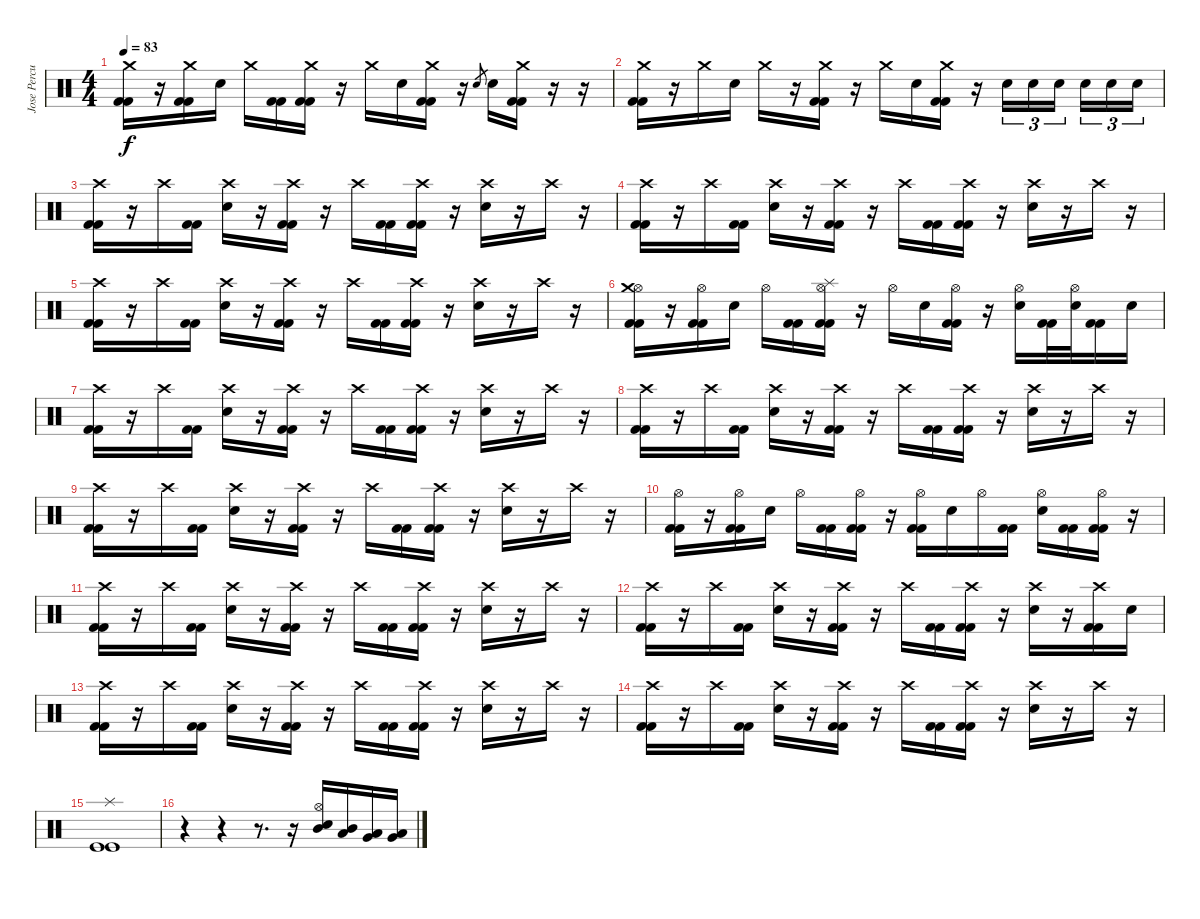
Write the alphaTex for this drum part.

\track ("Jose Percusilas" "Jose Percu") {instrument percussion}
\staff {score}
\articulation defaults
\ts (4 4)
\tempo 83
\clef neutral
\ks c
("Crash medium (hit)" "Kick (hit) 2" "Kick (hit) 2").16{dy f} r.16 ("Crash medium (hit)" "Kick (hit) 2" "Kick (hit) 2").16 "Electric Snare (hit)".16 "Crash medium (hit)".16 ("Kick (hit) 2" "Kick (hit) 2").16 ("Crash medium (hit)" "Kick (hit) 2" "Kick (hit) 2").16 r.16 "Crash medium (hit)".16 "Electric Snare (hit)".16 ("Crash medium (hit)" "Kick (hit) 2" "Kick (hit) 2").16 r.16 "Electric Snare (hit)".8{gr} "Electric Snare (hit)".16 ("Crash medium (hit)" "Kick (hit) 2" "Kick (hit) 2").16 r.16 r.16 |
("Crash medium (hit)" "Kick (hit) 2" "Kick (hit) 2").16 r.16 "Crash medium (hit)".16 "Electric Snare (hit)".16 "Crash medium (hit)".16 r.16 ("Crash medium (hit)" "Kick (hit) 2" "Kick (hit) 2").16 r.16 "Crash medium (hit)".16 "Electric Snare (hit)".16 ("Crash medium (hit)" "Kick (hit) 2" "Kick (hit) 2").16 r.16 "Electric Snare (hit)".16{tu (3 2)} "Electric Snare (hit)".16{tu (3 2)} "Electric Snare (hit)".16{tu (3 2)} "Electric Snare (hit)".16{tu (3 2)} "Electric Snare (hit)".16{tu (3 2)} "Electric Snare (hit)".16{tu (3 2)} |
("Crash high (hit)" "Kick (hit) 2" "Kick (hit) 2").16 r.16 "Crash high (hit)".16 ("Kick (hit) 2" "Kick (hit) 2").16 ("Crash high (hit)" "Electric Snare (hit)").16 r.16 ("Crash high (hit)" "Kick (hit) 2" "Kick (hit) 2").16 r.16 "Crash high (hit)".16 ("Kick (hit) 2" "Kick (hit) 2").16 ("Crash high (hit)" "Kick (hit) 2" "Kick (hit) 2").16 r.16 ("Crash high (hit)" "Electric Snare (hit)").16 r.16 "Crash high (hit)".16 r.16 |
("Crash high (hit)" "Kick (hit) 2" "Kick (hit) 2").16 r.16 "Crash high (hit)".16 ("Kick (hit) 2" "Kick (hit) 2").16 ("Crash high (hit)" "Electric Snare (hit)").16 r.16 ("Crash high (hit)" "Kick (hit) 2" "Kick (hit) 2").16 r.16 "Crash high (hit)".16 ("Kick (hit) 2" "Kick (hit) 2").16 ("Crash high (hit)" "Kick (hit) 2" "Kick (hit) 2").16 r.16 ("Crash high (hit)" "Electric Snare (hit)").16 r.16 "Crash high (hit)".16 r.16 |
("Crash high (hit)" "Kick (hit) 2" "Kick (hit) 2").16 r.16 "Crash high (hit)".16 ("Kick (hit) 2" "Kick (hit) 2").16 ("Crash high (hit)" "Electric Snare (hit)").16 r.16 ("Crash high (hit)" "Kick (hit) 2" "Kick (hit) 2").16 r.16 "Crash high (hit)".16 ("Kick (hit) 2" "Kick (hit) 2").16 ("Crash high (hit)" "Kick (hit) 2" "Kick (hit) 2").16 r.16 ("Crash high (hit)" "Electric Snare (hit)").16 r.16 "Crash high (hit)".16 r.16 |
("Hi-Hat (open)" "Crash medium (hit)" "Kick (hit) 2" "Kick (hit) 2").16 r.16 ("Hi-Hat (open)" "Kick (hit) 2" "Kick (hit) 2").16 "Electric Snare (hit)".16 "Hi-Hat (open)".16 ("Kick (hit) 2" "Kick (hit) 2").16 ("Hi-Hat (open)" "Splash (hit)" "Kick (hit) 2" "Kick (hit) 2").16 r.16 "Hi-Hat (open)".16 "Electric Snare (hit)".16 ("Hi-Hat (open)" "Kick (hit) 2" "Kick (hit) 2").16 r.16 ("Hi-Hat (open)" "Electric Snare (hit)").16 ("Kick (hit) 2" "Kick (hit) 2").32 ("Hi-Hat (open)" "Electric Snare (hit)").32 ("Kick (hit) 2" "Kick (hit) 2").16 "Electric Snare (hit)".16 |
("Crash high (hit)" "Kick (hit) 2" "Kick (hit) 2").16 r.16 "Crash high (hit)".16 ("Kick (hit) 2" "Kick (hit) 2").16 ("Crash high (hit)" "Electric Snare (hit)").16 r.16 ("Crash high (hit)" "Kick (hit) 2" "Kick (hit) 2").16 r.16 "Crash high (hit)".16 ("Kick (hit) 2" "Kick (hit) 2").16 ("Crash high (hit)" "Kick (hit) 2" "Kick (hit) 2").16 r.16 ("Crash high (hit)" "Electric Snare (hit)").16 r.16 "Crash high (hit)".16 r.16 |
("Crash high (hit)" "Kick (hit) 2" "Kick (hit) 2").16 r.16 "Crash high (hit)".16 ("Kick (hit) 2" "Kick (hit) 2").16 ("Crash high (hit)" "Electric Snare (hit)").16 r.16 ("Crash high (hit)" "Kick (hit) 2" "Kick (hit) 2").16 r.16 "Crash high (hit)".16 ("Kick (hit) 2" "Kick (hit) 2").16 ("Crash high (hit)" "Kick (hit) 2" "Kick (hit) 2").16 r.16 ("Crash high (hit)" "Electric Snare (hit)").16 r.16 "Crash high (hit)".16 r.16 |
("Crash high (hit)" "Kick (hit) 2" "Kick (hit) 2").16 r.16 "Crash high (hit)".16 ("Kick (hit) 2" "Kick (hit) 2").16 ("Crash high (hit)" "Electric Snare (hit)").16 r.16 ("Crash high (hit)" "Kick (hit) 2" "Kick (hit) 2").16 r.16 "Crash high (hit)".16 ("Kick (hit) 2" "Kick (hit) 2").16 ("Crash high (hit)" "Kick (hit) 2" "Kick (hit) 2").16 r.16 ("Crash high (hit)" "Electric Snare (hit)").16 r.16 "Crash high (hit)".16 r.16 |
("Hi-Hat (open)" "Kick (hit) 2" "Kick (hit) 2").16 r.16 ("Hi-Hat (open)" "Kick (hit) 2" "Kick (hit) 2").16 "Electric Snare (hit)".16 "Hi-Hat (open)".16 ("Kick (hit) 2" "Kick (hit) 2").16 ("Hi-Hat (open)" "Kick (hit) 2" "Kick (hit) 2").16 r.16 ("Hi-Hat (open)" "Kick (hit) 2" "Kick (hit) 2").16 "Electric Snare (hit)".16 "Hi-Hat (open)".16 ("Kick (hit) 2" "Kick (hit) 2").16 ("Hi-Hat (open)" "Electric Snare (hit)").16 ("Kick (hit) 2" "Kick (hit) 2").16 ("Hi-Hat (open)" "Kick (hit) 2" "Kick (hit) 2").16 r.16 |
("Crash high (hit)" "Kick (hit) 2" "Kick (hit) 2").16 r.16 "Crash high (hit)".16 ("Kick (hit) 2" "Kick (hit) 2").16 ("Crash high (hit)" "Electric Snare (hit)").16 r.16 ("Crash high (hit)" "Kick (hit) 2" "Kick (hit) 2").16 r.16 "Crash high (hit)".16 ("Kick (hit) 2" "Kick (hit) 2").16 ("Crash high (hit)" "Kick (hit) 2" "Kick (hit) 2").16 r.16 ("Crash high (hit)" "Electric Snare (hit)").16 r.16 "Crash high (hit)".16 r.16 |
("Crash high (hit)" "Kick (hit) 2" "Kick (hit) 2").16 r.16 "Crash high (hit)".16 ("Kick (hit) 2" "Kick (hit) 2").16 ("Crash high (hit)" "Electric Snare (hit)").16 r.16 ("Crash high (hit)" "Kick (hit) 2" "Kick (hit) 2").16 r.16 "Crash high (hit)".16 ("Kick (hit) 2" "Kick (hit) 2").16 ("Crash high (hit)" "Kick (hit) 2" "Kick (hit) 2").16 r.16 ("Crash high (hit)" "Electric Snare (hit)").16 r.16 ("Crash high (hit)" "Kick (hit) 2" "Kick (hit) 2").16 "Electric Snare (hit)".16 |
("Crash high (hit)" "Kick (hit) 2" "Kick (hit) 2").16 r.16 "Crash high (hit)".16 ("Kick (hit) 2" "Kick (hit) 2").16 ("Crash high (hit)" "Electric Snare (hit)").16 r.16 ("Crash high (hit)" "Kick (hit) 2" "Kick (hit) 2").16 r.16 "Crash high (hit)".16 ("Kick (hit) 2" "Kick (hit) 2").16 ("Crash high (hit)" "Kick (hit) 2" "Kick (hit) 2").16 r.16 ("Crash high (hit)" "Electric Snare (hit)").16 r.16 "Crash high (hit)".16 r.16 |
("Crash high (hit)" "Kick (hit) 2" "Kick (hit) 2").16 r.16 "Crash high (hit)".16 ("Kick (hit) 2" "Kick (hit) 2").16 ("Crash high (hit)" "Electric Snare (hit)").16 r.16 ("Crash high (hit)" "Kick (hit) 2" "Kick (hit) 2").16 r.16 "Crash high (hit)".16 ("Kick (hit) 2" "Kick (hit) 2").16 ("Crash high (hit)" "Kick (hit) 2" "Kick (hit) 2").16 r.16 ("Crash high (hit)" "Electric Snare (hit)").16 r.16 "Crash high (hit)".16 r.16 |
("Splash (hit)" "Kick (hit)" "Kick (hit)").1 |
r.4 r.4 r.8{d} r.16 ("Hi-Hat (open)" "Mid Tom (hit)" "Electric Snare (hit)").16 ("Mid Tom (hit)" "Low Tom (hit)").16 ("Low Tom (hit)" "Very Low Tom (hit)").16 ("Low Tom (hit)" "Very Low Tom (hit)").16
